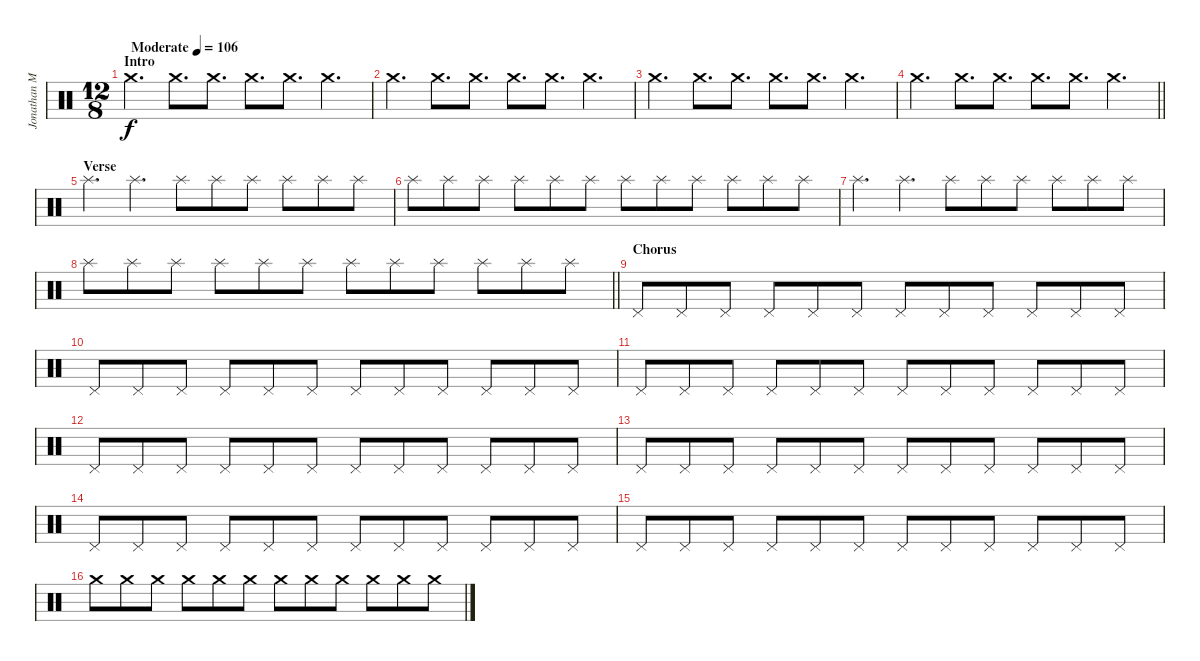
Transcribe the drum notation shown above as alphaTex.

\track ("Jonathan Mover (Studio Drummer)" "Jonathan M") {instrument percussion}
\staff {score}
\articulation defaults
\ts (12 8)
\section ("" "Intro")
\tempo (106 "Moderate")
\clef neutral
\ks c "Crash medium (hit)".4{d dy f} "Crash medium (hit)".8{d} "Crash medium (hit)".8{d} "Crash medium (hit)".8{d} "Crash medium (hit)".8{d} "Crash medium (hit)".4{d}
|
"Crash medium (hit)".4{d} "Crash medium (hit)".8{d} "Crash medium (hit)".8{d} "Crash medium (hit)".8{d} "Crash medium (hit)".8{d} "Crash medium (hit)".4{d} |
"Crash medium (hit)".4{d} "Crash medium (hit)".8{d} "Crash medium (hit)".8{d} "Crash medium (hit)".8{d} "Crash medium (hit)".8{d} "Crash medium (hit)".4{d} |
\barLineRight lightlight "Crash medium (hit)".4{d} "Crash medium (hit)".8{d} "Crash medium (hit)".8{d} "Crash medium (hit)".8{d} "Crash medium (hit)".8{d} "Crash medium (hit)".4{d}
|
\section ("" "Verse")
"Splash (hit)".4{d} "Splash (hit)".4{d} "Splash (hit)".8 "Splash (hit)".8 "Splash (hit)".8 "Splash (hit)".8 "Splash (hit)".8 "Splash (hit)".8 |
"Splash (hit)".8 "Splash (hit)".8 "Splash (hit)".8 "Splash (hit)".8 "Splash (hit)".8 "Splash (hit)".8 "Splash (hit)".8 "Splash (hit)".8 "Splash (hit)".8 "Splash (hit)".8 "Splash (hit)".8 "Splash (hit)".8 |
"Splash (hit)".4{d} "Splash (hit)".4{d} "Splash (hit)".8 "Splash (hit)".8 "Splash (hit)".8 "Splash (hit)".8 "Splash (hit)".8 "Splash (hit)".8 |
\barLineRight lightlight "Splash (hit)".8 "Splash (hit)".8 "Splash (hit)".8 "Splash (hit)".8 "Splash (hit)".8 "Splash (hit)".8 "Splash (hit)".8 "Splash (hit)".8 "Splash (hit)".8 "Splash (hit)".8 "Splash (hit)".8 "Splash (hit)".8
|
\section ("" "Chorus")
"Pedal Hi-Hat (hit)".8 "Pedal Hi-Hat (hit)".8 "Pedal Hi-Hat (hit)".8 "Pedal Hi-Hat (hit)".8 "Pedal Hi-Hat (hit)".8 "Pedal Hi-Hat (hit)".8 "Pedal Hi-Hat (hit)".8 "Pedal Hi-Hat (hit)".8 "Pedal Hi-Hat (hit)".8 "Pedal Hi-Hat (hit)".8 "Pedal Hi-Hat (hit)".8 "Pedal Hi-Hat (hit)".8 |
"Pedal Hi-Hat (hit)".8 "Pedal Hi-Hat (hit)".8 "Pedal Hi-Hat (hit)".8 "Pedal Hi-Hat (hit)".8 "Pedal Hi-Hat (hit)".8 "Pedal Hi-Hat (hit)".8 "Pedal Hi-Hat (hit)".8 "Pedal Hi-Hat (hit)".8 "Pedal Hi-Hat (hit)".8 "Pedal Hi-Hat (hit)".8 "Pedal Hi-Hat (hit)".8 "Pedal Hi-Hat (hit)".8 |
"Pedal Hi-Hat (hit)".8 "Pedal Hi-Hat (hit)".8 "Pedal Hi-Hat (hit)".8 "Pedal Hi-Hat (hit)".8 "Pedal Hi-Hat (hit)".8 "Pedal Hi-Hat (hit)".8 "Pedal Hi-Hat (hit)".8 "Pedal Hi-Hat (hit)".8 "Pedal Hi-Hat (hit)".8 "Pedal Hi-Hat (hit)".8 "Pedal Hi-Hat (hit)".8 "Pedal Hi-Hat (hit)".8 |
"Pedal Hi-Hat (hit)".8 "Pedal Hi-Hat (hit)".8 "Pedal Hi-Hat (hit)".8 "Pedal Hi-Hat (hit)".8 "Pedal Hi-Hat (hit)".8 "Pedal Hi-Hat (hit)".8 "Pedal Hi-Hat (hit)".8 "Pedal Hi-Hat (hit)".8 "Pedal Hi-Hat (hit)".8 "Pedal Hi-Hat (hit)".8 "Pedal Hi-Hat (hit)".8 "Pedal Hi-Hat (hit)".8 |
"Pedal Hi-Hat (hit)".8 "Pedal Hi-Hat (hit)".8 "Pedal Hi-Hat (hit)".8 "Pedal Hi-Hat (hit)".8 "Pedal Hi-Hat (hit)".8 "Pedal Hi-Hat (hit)".8 "Pedal Hi-Hat (hit)".8 "Pedal Hi-Hat (hit)".8 "Pedal Hi-Hat (hit)".8 "Pedal Hi-Hat (hit)".8 "Pedal Hi-Hat (hit)".8 "Pedal Hi-Hat (hit)".8 |
"Pedal Hi-Hat (hit)".8 "Pedal Hi-Hat (hit)".8 "Pedal Hi-Hat (hit)".8 "Pedal Hi-Hat (hit)".8 "Pedal Hi-Hat (hit)".8 "Pedal Hi-Hat (hit)".8 "Pedal Hi-Hat (hit)".8 "Pedal Hi-Hat (hit)".8 "Pedal Hi-Hat (hit)".8 "Pedal Hi-Hat (hit)".8 "Pedal Hi-Hat (hit)".8 "Pedal Hi-Hat (hit)".8 |
"Pedal Hi-Hat (hit)".8 "Pedal Hi-Hat (hit)".8 "Pedal Hi-Hat (hit)".8 "Pedal Hi-Hat (hit)".8 "Pedal Hi-Hat (hit)".8 "Pedal Hi-Hat (hit)".8 "Pedal Hi-Hat (hit)".8 "Pedal Hi-Hat (hit)".8 "Pedal Hi-Hat (hit)".8 "Pedal Hi-Hat (hit)".8 "Pedal Hi-Hat (hit)".8 "Pedal Hi-Hat (hit)".8 |
"Crash medium (hit)".8 "Crash medium (hit)".8 "Crash medium (hit)".8 "Crash medium (hit)".8 "Crash medium (hit)".8 "Crash medium (hit)".8 "Crash medium (hit)".8 "Crash medium (hit)".8 "Crash medium (hit)".8 "Crash medium (hit)".8 "Crash medium (hit)".8 "Crash medium (hit)".8
